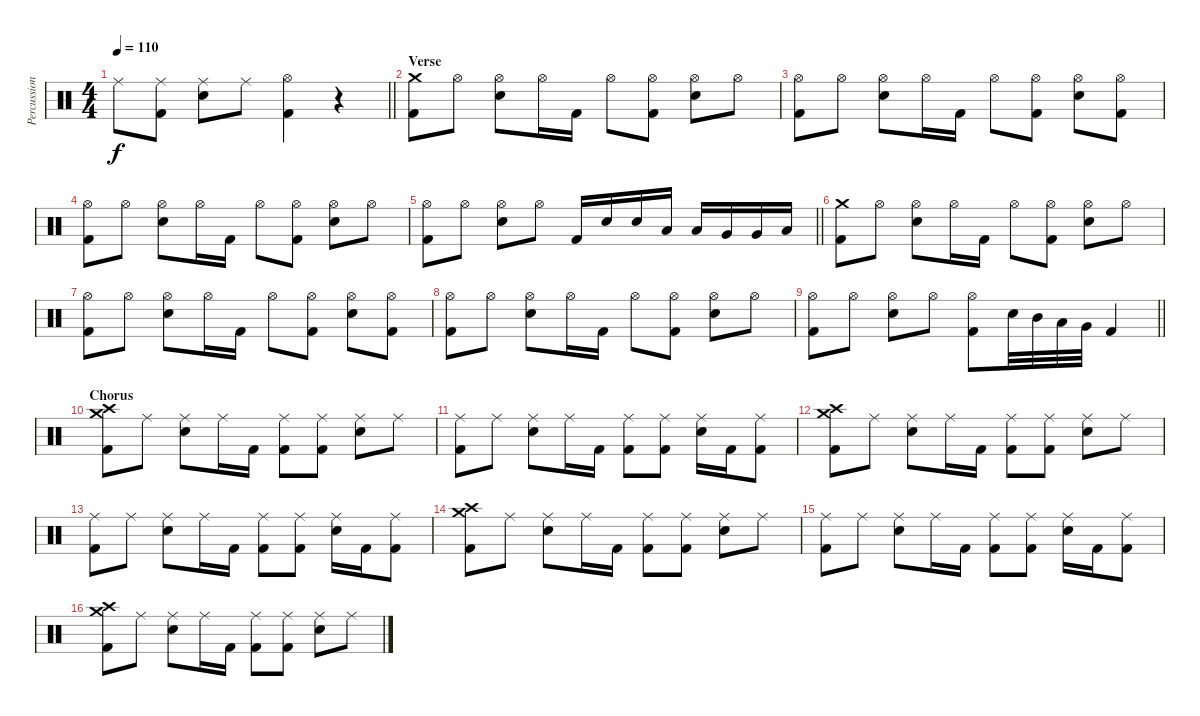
\track ("Percussion" "Percussion") {instrument percussion}
\staff {score}
\articulation defaults
\ts (4 4)
\tempo 110
\clef neutral
\barLineRight lightlight
\ks c "Ride (middle)".8{dy f}
("Ride (middle)" "Kick (hit) 2").8 ("Ride (middle)" "Snare (hit) 2").8 "Ride (middle)".8 ("Hi-Hat (open)" "Kick (hit) 2").4 r.4 |
\section ("" "Verse")
("Crash medium (hit)" "Kick (hit) 2").8 "Hi-Hat (open)".8 ("Hi-Hat (open)" "Snare (hit) 2").8 "Hi-Hat (open)".16 "Kick (hit) 2".16 "Hi-Hat (open)".8 ("Hi-Hat (open)" "Kick (hit) 2").8 ("Hi-Hat (open)" "Snare (hit) 2").8 "Hi-Hat (open)".8 |
("Hi-Hat (open)" "Kick (hit) 2").8 "Hi-Hat (open)".8 ("Hi-Hat (open)" "Snare (hit) 2").8 "Hi-Hat (open)".16 "Kick (hit) 2".16 "Hi-Hat (open)".8 ("Hi-Hat (open)" "Kick (hit) 2").8 ("Hi-Hat (open)" "Snare (hit) 2").8 ("Hi-Hat (open)" "Kick (hit) 2").8 |
("Hi-Hat (open)" "Kick (hit) 2").8 "Hi-Hat (open)".8 ("Hi-Hat (open)" "Snare (hit) 2").8 "Hi-Hat (open)".16 "Kick (hit) 2".16 "Hi-Hat (open)".8 ("Hi-Hat (open)" "Kick (hit) 2").8 ("Hi-Hat (open)" "Snare (hit) 2").8 "Hi-Hat (open)".8 |
\barLineRight lightlight
("Hi-Hat (open)" "Kick (hit) 2").8 "Hi-Hat (open)".8 ("Hi-Hat (open)" "Snare (hit) 2").8 "Hi-Hat (open)".8 "Kick (hit) 2".16 "Snare (hit) 2".16 "Snare (hit) 2".16 "Low Tom (hit)".16 "Low Tom (hit)".16 "Very Low Tom (hit)".16 "Very Low Tom (hit)".16 "Low Floor Tom (hit)".16 |
("Crash medium (hit)" "Kick (hit) 2").8 "Hi-Hat (open)".8 ("Hi-Hat (open)" "Snare (hit) 2").8 "Hi-Hat (open)".16 "Kick (hit) 2".16 "Hi-Hat (open)".8 ("Hi-Hat (open)" "Kick (hit) 2").8 ("Hi-Hat (open)" "Snare (hit) 2").8 "Hi-Hat (open)".8 |
("Hi-Hat (open)" "Kick (hit) 2").8 "Hi-Hat (open)".8 ("Hi-Hat (open)" "Snare (hit) 2").8 "Hi-Hat (open)".16 "Kick (hit) 2".16 "Hi-Hat (open)".8 ("Hi-Hat (open)" "Kick (hit) 2").8 ("Hi-Hat (open)" "Snare (hit) 2").8 ("Hi-Hat (open)" "Kick (hit) 2").8 |
("Hi-Hat (open)" "Kick (hit) 2").8 "Hi-Hat (open)".8 ("Hi-Hat (open)" "Snare (hit) 2").8 "Hi-Hat (open)".16 "Kick (hit) 2".16 "Hi-Hat (open)".8 ("Hi-Hat (open)" "Kick (hit) 2").8 ("Hi-Hat (open)" "Snare (hit) 2").8 "Hi-Hat (open)".8 |
\barLineRight lightlight
("Hi-Hat (open)" "Kick (hit) 2").8 "Hi-Hat (open)".8 ("Hi-Hat (open)" "Snare (hit) 2").8 "Hi-Hat (open)".8 ("Hi-Hat (open)" "Kick (hit) 2").8 "Snare (hit) 2".32 "Mid Tom (hit)".32 "Low Tom (hit)".32 "Very Low Tom (hit)".32 "Kick (hit) 2".4 |
\section ("" "Chorus")
("Crash medium (hit)" "Crash high (hit)" "Kick (hit) 2").8 "Ride (middle)".8 ("Ride (middle)" "Snare (hit) 2").8 "Ride (middle)".16 "Kick (hit) 2".16 ("Ride (middle)" "Kick (hit) 2").8 ("Ride (middle)" "Kick (hit) 2").8 ("Ride (middle)" "Snare (hit) 2").8 "Ride (middle)".8 |
("Ride (middle)" "Kick (hit) 2").8 "Ride (middle)".8 ("Ride (middle)" "Snare (hit) 2").8 "Ride (middle)".16 "Kick (hit) 2".16 ("Ride (middle)" "Kick (hit) 2").8 ("Ride (middle)" "Kick (hit) 2").8 ("Ride (middle)" "Snare (hit) 2").16 "Kick (hit) 2".16 ("Ride (middle)" "Kick (hit) 2").8 |
("Crash medium (hit)" "Crash high (hit)" "Kick (hit) 2").8 "Ride (middle)".8 ("Ride (middle)" "Snare (hit) 2").8 "Ride (middle)".16 "Kick (hit) 2".16 ("Ride (middle)" "Kick (hit) 2").8 ("Ride (middle)" "Kick (hit) 2").8 ("Ride (middle)" "Snare (hit) 2").8 "Ride (middle)".8 |
("Ride (middle)" "Kick (hit) 2").8 "Ride (middle)".8 ("Ride (middle)" "Snare (hit) 2").8 "Ride (middle)".16 "Kick (hit) 2".16 ("Ride (middle)" "Kick (hit) 2").8 ("Ride (middle)" "Kick (hit) 2").8 ("Ride (middle)" "Snare (hit) 2").16 "Kick (hit) 2".16 ("Ride (middle)" "Kick (hit) 2").8 |
("Crash medium (hit)" "Crash high (hit)" "Kick (hit) 2").8 "Ride (middle)".8 ("Ride (middle)" "Snare (hit) 2").8 "Ride (middle)".16 "Kick (hit) 2".16 ("Ride (middle)" "Kick (hit) 2").8 ("Ride (middle)" "Kick (hit) 2").8 ("Ride (middle)" "Snare (hit) 2").8 "Ride (middle)".8 |
("Ride (middle)" "Kick (hit) 2").8 "Ride (middle)".8 ("Ride (middle)" "Snare (hit) 2").8 "Ride (middle)".16 "Kick (hit) 2".16 ("Ride (middle)" "Kick (hit) 2").8 ("Ride (middle)" "Kick (hit) 2").8 ("Ride (middle)" "Snare (hit) 2").16 "Kick (hit) 2".16 ("Ride (middle)" "Kick (hit) 2").8 |
("Crash medium (hit)" "Crash high (hit)" "Kick (hit) 2").8 "Ride (middle)".8 ("Ride (middle)" "Snare (hit) 2").8 "Ride (middle)".16 "Kick (hit) 2".16 ("Ride (middle)" "Kick (hit) 2").8 ("Ride (middle)" "Kick (hit) 2").8 ("Ride (middle)" "Snare (hit) 2").8 "Ride (middle)".8
